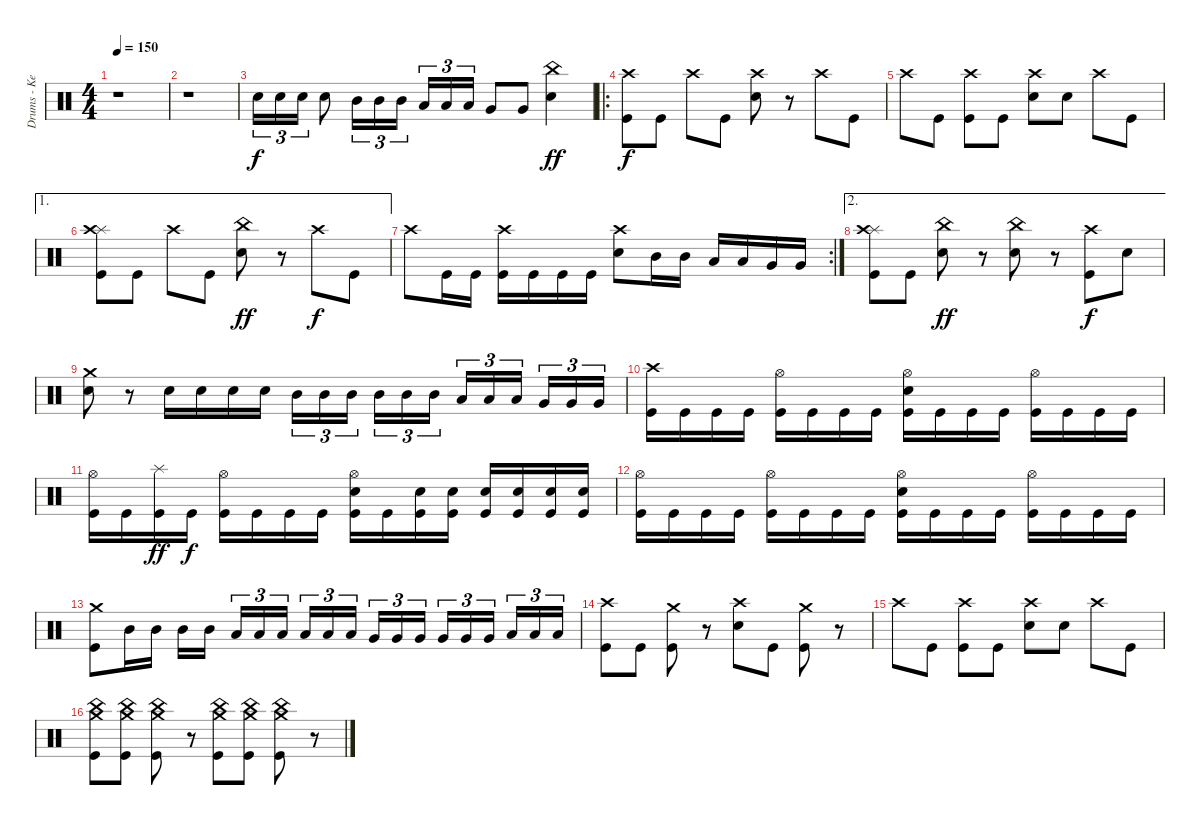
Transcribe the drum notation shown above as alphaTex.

\track ("Drums - Kevin" "Drums - Ke") {instrument percussion}
\staff {score}
\articulation defaults
\ts (4 4)
\tempo 150
\clef neutral
\ks c
r.1{dy f} |
r.1 |
"Electric Snare (hit)".16{tu (3 2)} "Electric Snare (hit)".16{tu (3 2)} "Electric Snare (hit)".16{tu (3 2)} "Electric Snare (hit)".8 "Mid Tom (hit)".16{tu (3 2)} "Mid Tom (hit)".16{tu (3 2)} "Mid Tom (hit)".16{tu (3 2)} "Low Tom (hit)".16{tu (3 2)} "Low Tom (hit)".16{tu (3 2)} "Low Tom (hit)".16{tu (3 2)} "Very Low Tom (hit)".8 "Very Low Tom (hit)".8 ("China (hit)" "Electric Snare (hit)").4{dy ff} |
\ro
("Crash high (hit)" "Kick (hit)").8{dy f} "Kick (hit)".8 "Crash high (hit)".8 "Kick (hit)".8 ("Crash high (hit)" "Electric Snare (hit)").8 r.8 "Crash high (hit)".8 "Kick (hit)".8 |
"Crash high (hit)".8 "Kick (hit)".8 ("Crash high (hit)" "Kick (hit)").8 "Kick (hit)".8 ("Crash high (hit)" "Electric Snare (hit)").8 "Electric Snare (hit)".8 "Crash high (hit)".8 "Kick (hit)".8 |
\ae 1
("Splash (hit)" "Crash high (hit)" "Kick (hit)").8 "Kick (hit)".8 "Crash high (hit)".8 "Kick (hit)".8 ("China (hit)" "Electric Snare (hit)").8{dy ff} r.8 "Crash high (hit)".8{dy f} "Kick (hit)".8 |
\rc 2 "Crash high (hit)".8 "Kick (hit)".16 "Kick (hit)".16
("Crash high (hit)" "Kick (hit)").16 "Kick (hit)".16 "Kick (hit)".16 "Kick (hit)".16 ("Crash high (hit)" "Electric Snare (hit)").8 "Mid Tom (hit)".16 "Mid Tom (hit)".16 "Low Tom (hit)".16 "Low Tom (hit)".16 "Very Low Tom (hit)".16 "Very Low Tom (hit)".16 |
\ae 2
("Splash (hit)" "Crash high (hit)" "Kick (hit)").8 "Kick (hit)".8 ("China (hit)" "Electric Snare (hit)").8{dy ff} r.8 ("China (hit)" "Electric Snare (hit)").8 r.8 ("Crash high (hit)" "Kick (hit)").8{dy f} "Electric Snare (hit)".8 |
("Crash medium (hit)" "Electric Snare (hit)").8 r.8 "Electric Snare (hit)".16 "Electric Snare (hit)".16 "Electric Snare (hit)".16 "Electric Snare (hit)".16 "Mid Tom (hit)".16{tu (3 2)} "Mid Tom (hit)".16{tu (3 2)} "Mid Tom (hit)".16{tu (3 2)} "Mid Tom (hit)".16{tu (3 2)} "Mid Tom (hit)".16{tu (3 2)} "Mid Tom (hit)".16{tu (3 2)} "Low Tom (hit)".16{tu (3 2)} "Low Tom (hit)".16{tu (3 2)} "Low Tom (hit)".16{tu (3 2)} "Very Low Tom (hit)".16{tu (3 2)} "Very Low Tom (hit)".16{tu (3 2)} "Very Low Tom (hit)".16{tu (3 2)} |
("Crash high (hit)" "Kick (hit)").16 "Kick (hit)".16 "Kick (hit)".16 "Kick (hit)".16 ("Hi-Hat (open)" "Kick (hit)").16 "Kick (hit)".16 "Kick (hit)".16 "Kick (hit)".16 ("Hi-Hat (open)" "Electric Snare (hit)" "Kick (hit)").16 "Kick (hit)".16 "Kick (hit)".16 "Kick (hit)".16 ("Hi-Hat (open)" "Kick (hit)").16 "Kick (hit)".16 "Kick (hit)".16 "Kick (hit)".16 |
("Hi-Hat (open)" "Kick (hit)").16 "Kick (hit)".16 ("Splash (hit)" "Kick (hit)").16{dy ff} "Kick (hit)".16{dy f} ("Hi-Hat (open)" "Kick (hit)").16 "Kick (hit)".16 "Kick (hit)".16 "Kick (hit)".16 ("Hi-Hat (open)" "Electric Snare (hit)" "Kick (hit)").16 "Kick (hit)".16 ("Electric Snare (hit)" "Kick (hit)").16 ("Electric Snare (hit)" "Kick (hit)").16 ("Electric Snare (hit)" "Kick (hit)").16 ("Electric Snare (hit)" "Kick (hit)").16 ("Electric Snare (hit)" "Kick (hit)").16 ("Electric Snare (hit)" "Kick (hit)").16 |
("Hi-Hat (open)" "Kick (hit)").16 "Kick (hit)".16 "Kick (hit)".16 "Kick (hit)".16 ("Hi-Hat (open)" "Kick (hit)").16 "Kick (hit)".16 "Kick (hit)".16 "Kick (hit)".16 ("Hi-Hat (open)" "Electric Snare (hit)" "Kick (hit)").16 "Kick (hit)".16 "Kick (hit)".16 "Kick (hit)".16 ("Hi-Hat (open)" "Kick (hit)").16 "Kick (hit)".16 "Kick (hit)".16 "Kick (hit)".16 |
("Crash medium (hit)" "Kick (hit)").8 "Mid Tom (hit)".16 "Mid Tom (hit)".16 "Mid Tom (hit)".16 "Mid Tom (hit)".16 "Low Tom (hit)".16{tu (3 2)} "Low Tom (hit)".16{tu (3 2)} "Low Tom (hit)".16{tu (3 2)} "Low Tom (hit)".16{tu (3 2)} "Low Tom (hit)".16{tu (3 2)} "Low Tom (hit)".16{tu (3 2)} "Very Low Tom (hit)".16{tu (3 2)} "Very Low Tom (hit)".16{tu (3 2)} "Very Low Tom (hit)".16{tu (3 2)} "Very Low Tom (hit)".16{tu (3 2)} "Very Low Tom (hit)".16{tu (3 2)} "Very Low Tom (hit)".16{tu (3 2)} "Low Floor Tom (hit)".16{tu (3 2)} "Low Floor Tom (hit)".16{tu (3 2)} "Low Floor Tom (hit)".16{tu (3 2)} |
("Crash high (hit)" "Kick (hit)").8 "Kick (hit)".8 ("Crash medium (hit)" "Kick (hit)").8 r.8 ("Crash high (hit)" "Electric Snare (hit)").8 "Kick (hit)".8 ("Crash medium (hit)" "Kick (hit)").8 r.8 |
"Crash high (hit)".8 "Kick (hit)".8 ("Crash high (hit)" "Kick (hit)").8 "Kick (hit)".8 ("Crash high (hit)" "Electric Snare (hit)").8 "Electric Snare (hit)".8 "Crash high (hit)".8 "Kick (hit)".8 |
("China (hit)" "Crash medium (hit)" "Kick (hit)").8 ("China (hit)" "Crash medium (hit)" "Kick (hit)").8 ("China (hit)" "Crash medium (hit)" "Kick (hit)").8 r.8 ("China (hit)" "Crash medium (hit)" "Kick (hit)").8 ("China (hit)" "Crash medium (hit)" "Kick (hit)").8 ("China (hit)" "Crash medium (hit)" "Kick (hit)").8 r.8
